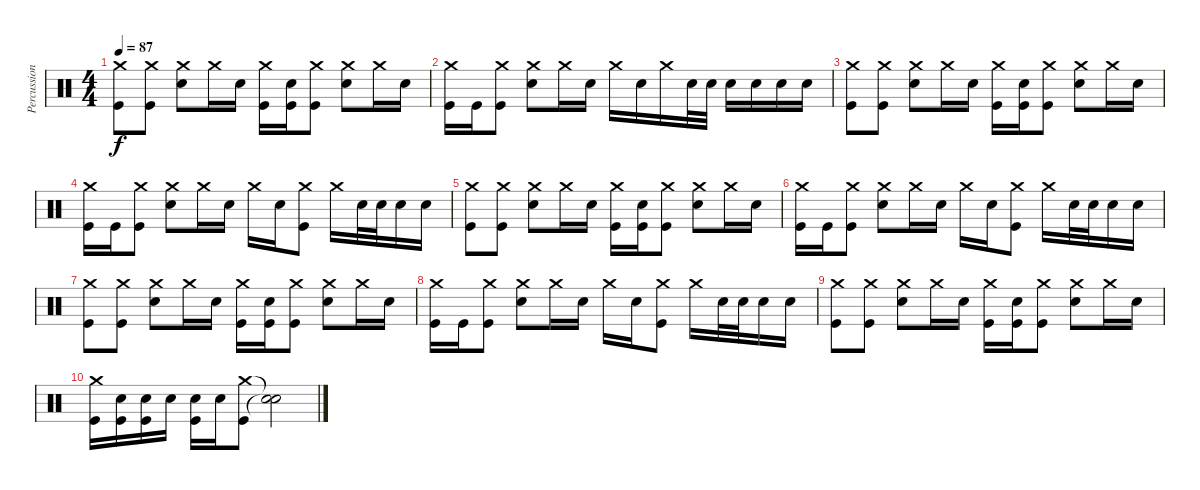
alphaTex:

\track ("Percussion" "Percussion") {instrument percussion}
\staff {score}
\articulation defaults
\ts (4 4)
\tempo 87
\clef neutral
\ks c
("Crash medium (hit)" "Kick (hit)").8{dy f} ("Crash medium (hit)" "Kick (hit)").8 ("Crash medium (hit)" "Snare (hit) 2").8 "Crash medium (hit)".16 "Snare (hit) 2".16 ("Crash medium (hit)" "Kick (hit)").16 ("Snare (hit) 2" "Kick (hit)").16 ("Crash medium (hit)" "Kick (hit)").8 ("Crash medium (hit)" "Snare (hit) 2").8 "Crash medium (hit)".16 "Snare (hit) 2".16 |
("Crash medium (hit)" "Kick (hit)").16 "Kick (hit)".16 ("Crash medium (hit)" "Kick (hit)").8 ("Crash medium (hit)" "Snare (hit) 2").8 "Crash medium (hit)".16 "Snare (hit) 2".16 "Crash medium (hit)".16 "Snare (hit) 2".16 "Crash medium (hit)".16 "Snare (hit) 2".32 "Snare (hit) 2".32 "Snare (hit) 2".16 "Snare (hit) 2".16 "Snare (hit) 2".16 "Snare (hit) 2".16 |
("Crash medium (hit)" "Kick (hit)").8 ("Crash medium (hit)" "Kick (hit)").8 ("Crash medium (hit)" "Snare (hit) 2").8 "Crash medium (hit)".16 "Snare (hit) 2".16 ("Crash medium (hit)" "Kick (hit)").16 ("Snare (hit) 2" "Kick (hit)").16 ("Crash medium (hit)" "Kick (hit)").8 ("Crash medium (hit)" "Snare (hit) 2").8 "Crash medium (hit)".16 "Snare (hit) 2".16 |
("Crash medium (hit)" "Kick (hit)").16 "Kick (hit)".16 ("Crash medium (hit)" "Kick (hit)").8 ("Crash medium (hit)" "Snare (hit) 2").8 "Crash medium (hit)".16 "Snare (hit) 2".16 "Crash medium (hit)".16 "Snare (hit) 2".16 ("Crash medium (hit)" "Kick (hit)").8 "Crash medium (hit)".16 "Snare (hit) 2".32 "Snare (hit) 2".32 "Snare (hit) 2".16 "Snare (hit) 2".16 |
("Crash medium (hit)" "Kick (hit)").8 ("Crash medium (hit)" "Kick (hit)").8 ("Crash medium (hit)" "Snare (hit) 2").8 "Crash medium (hit)".16 "Snare (hit) 2".16 ("Crash medium (hit)" "Kick (hit)").16 ("Snare (hit) 2" "Kick (hit)").16 ("Crash medium (hit)" "Kick (hit)").8 ("Crash medium (hit)" "Snare (hit) 2").8 "Crash medium (hit)".16 "Snare (hit) 2".16 |
("Crash medium (hit)" "Kick (hit)").16 "Kick (hit)".16 ("Crash medium (hit)" "Kick (hit)").8 ("Crash medium (hit)" "Snare (hit) 2").8 "Crash medium (hit)".16 "Snare (hit) 2".16 "Crash medium (hit)".16 "Snare (hit) 2".16 ("Crash medium (hit)" "Kick (hit)").8 "Crash medium (hit)".16 "Snare (hit) 2".32 "Snare (hit) 2".32 "Snare (hit) 2".16 "Snare (hit) 2".16 |
("Crash medium (hit)" "Kick (hit)").8 ("Crash medium (hit)" "Kick (hit)").8 ("Crash medium (hit)" "Snare (hit) 2").8 "Crash medium (hit)".16 "Snare (hit) 2".16 ("Crash medium (hit)" "Kick (hit)").16 ("Snare (hit) 2" "Kick (hit)").16 ("Crash medium (hit)" "Kick (hit)").8 ("Crash medium (hit)" "Snare (hit) 2").8 "Crash medium (hit)".16 "Snare (hit) 2".16 |
("Crash medium (hit)" "Kick (hit)").16 "Kick (hit)".16 ("Crash medium (hit)" "Kick (hit)").8 ("Crash medium (hit)" "Snare (hit) 2").8 "Crash medium (hit)".16 "Snare (hit) 2".16 "Crash medium (hit)".16 "Snare (hit) 2".16 ("Crash medium (hit)" "Kick (hit)").8 "Crash medium (hit)".16 "Snare (hit) 2".32 "Snare (hit) 2".32 "Snare (hit) 2".16 "Snare (hit) 2".16 |
("Crash medium (hit)" "Kick (hit)").8 ("Crash medium (hit)" "Kick (hit)").8 ("Crash medium (hit)" "Snare (hit) 2").8 "Crash medium (hit)".16 "Snare (hit) 2".16 ("Crash medium (hit)" "Kick (hit)").16 ("Snare (hit) 2" "Kick (hit)").16 ("Crash medium (hit)" "Kick (hit)").8 ("Crash medium (hit)" "Snare (hit) 2").8 "Crash medium (hit)".16 "Snare (hit) 2".16 |
("Crash medium (hit)" "Kick (hit)").16 ("Snare (hit) 2" "Kick (hit)").16 ("Snare (hit) 2" "Kick (hit)").16 "Snare (hit) 2".16 ("Snare (hit) 2" "Kick (hit)").16 "Snare (hit) 2".16 ("Crash medium (hit)" "Kick (hit)").8 ("Snare (hit)"{t} "Snare (hit)"{t}).2
